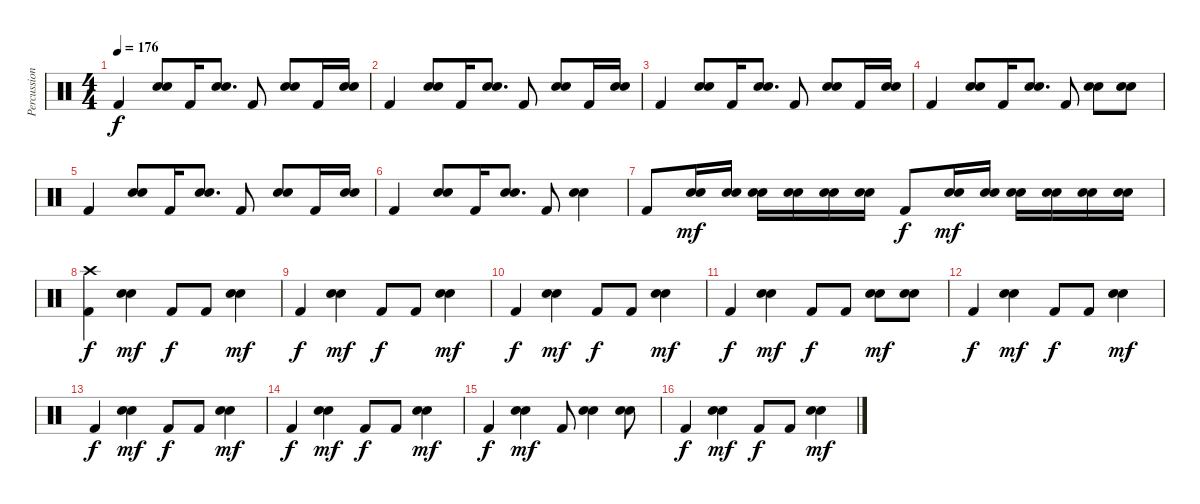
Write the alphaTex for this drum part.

\track ("Percussion" "Percussion") {instrument percussion}
\staff {score}
\articulation defaults
\ts (4 4)
\tempo 176
\clef neutral
\ks c "Kick (hit) 2".4{dy f}
("Electric Snare (hit)" "Snare (hit) 2").8 "Kick (hit) 2".16 ("Electric Snare (hit)" "Snare (hit) 2").8{d} "Kick (hit) 2".8 ("Electric Snare (hit)" "Snare (hit) 2").8 "Kick (hit) 2".16 ("Electric Snare (hit)" "Snare (hit) 2").16 |
"Kick (hit) 2".4 ("Electric Snare (hit)" "Snare (hit) 2").8 "Kick (hit) 2".16 ("Electric Snare (hit)" "Snare (hit) 2").8{d} "Kick (hit) 2".8 ("Electric Snare (hit)" "Snare (hit) 2").8 "Kick (hit) 2".16 ("Electric Snare (hit)" "Snare (hit) 2").16 |
"Kick (hit) 2".4 ("Electric Snare (hit)" "Snare (hit) 2").8 "Kick (hit) 2".16 ("Electric Snare (hit)" "Snare (hit) 2").8{d} "Kick (hit) 2".8 ("Electric Snare (hit)" "Snare (hit) 2").8 "Kick (hit) 2".16 ("Electric Snare (hit)" "Snare (hit) 2").16 |
"Kick (hit) 2".4 ("Electric Snare (hit)" "Snare (hit) 2").8 "Kick (hit) 2".16 ("Electric Snare (hit)" "Snare (hit) 2").8{d} "Kick (hit) 2".8 ("Electric Snare (hit)" "Snare (hit) 2").8 ("Electric Snare (hit)" "Snare (hit) 2").8 |
"Kick (hit) 2".4 ("Electric Snare (hit)" "Snare (hit) 2").8 "Kick (hit) 2".16 ("Electric Snare (hit)" "Snare (hit) 2").8{d} "Kick (hit) 2".8 ("Electric Snare (hit)" "Snare (hit) 2").8 "Kick (hit) 2".16 ("Electric Snare (hit)" "Snare (hit) 2").16 |
"Kick (hit) 2".4 ("Electric Snare (hit)" "Snare (hit) 2").8 "Kick (hit) 2".16 ("Electric Snare (hit)" "Snare (hit) 2").8{d} "Kick (hit) 2".8 ("Electric Snare (hit)" "Snare (hit) 2").4 |
"Kick (hit) 2".8 ("Electric Snare (hit)" "Snare (hit) 2").16{dy mf} ("Electric Snare (hit)" "Snare (hit) 2").16 ("Electric Snare (hit)" "Snare (hit) 2").16 ("Electric Snare (hit)" "Snare (hit) 2").16 ("Electric Snare (hit)" "Snare (hit) 2").16 ("Electric Snare (hit)" "Snare (hit) 2").16 "Kick (hit) 2".8{dy f} ("Electric Snare (hit)" "Snare (hit) 2").16{dy mf} ("Electric Snare (hit)" "Snare (hit) 2").16 ("Electric Snare (hit)" "Snare (hit) 2").16 ("Electric Snare (hit)" "Snare (hit) 2").16 ("Electric Snare (hit)" "Snare (hit) 2").16 ("Electric Snare (hit)" "Snare (hit) 2").16 |
("Kick (hit) 2" "Crash high (hit)").4{dy f} ("Electric Snare (hit)" "Snare (hit) 2").4{dy mf} "Kick (hit) 2".8{dy f} "Kick (hit) 2".8 ("Electric Snare (hit)" "Snare (hit) 2").4{dy mf} |
"Kick (hit) 2".4{dy f} ("Electric Snare (hit)" "Snare (hit) 2").4{dy mf} "Kick (hit) 2".8{dy f} "Kick (hit) 2".8 ("Electric Snare (hit)" "Snare (hit) 2").4{dy mf} |
"Kick (hit) 2".4{dy f} ("Electric Snare (hit)" "Snare (hit) 2").4{dy mf} "Kick (hit) 2".8{dy f} "Kick (hit) 2".8 ("Electric Snare (hit)" "Snare (hit) 2").4{dy mf} |
"Kick (hit) 2".4{dy f} ("Electric Snare (hit)" "Snare (hit) 2").4{dy mf} "Kick (hit) 2".8{dy f} "Kick (hit) 2".8 ("Electric Snare (hit)" "Snare (hit) 2").8{dy mf} ("Electric Snare (hit)" "Snare (hit) 2").8 |
"Kick (hit) 2".4{dy f} ("Electric Snare (hit)" "Snare (hit) 2").4{dy mf} "Kick (hit) 2".8{dy f} "Kick (hit) 2".8 ("Electric Snare (hit)" "Snare (hit) 2").4{dy mf} |
"Kick (hit) 2".4{dy f} ("Electric Snare (hit)" "Snare (hit) 2").4{dy mf} "Kick (hit) 2".8{dy f} "Kick (hit) 2".8 ("Electric Snare (hit)" "Snare (hit) 2").4{dy mf} |
"Kick (hit) 2".4{dy f} ("Electric Snare (hit)" "Snare (hit) 2").4{dy mf} "Kick (hit) 2".8{dy f} "Kick (hit) 2".8 ("Electric Snare (hit)" "Snare (hit) 2").4{dy mf} |
"Kick (hit) 2".4{dy f} ("Electric Snare (hit)" "Snare (hit) 2").4{dy mf} "Kick (hit) 2".8 ("Electric Snare (hit)" "Snare (hit) 2").4 ("Electric Snare (hit)" "Snare (hit) 2").8 |
"Kick (hit) 2".4{dy f} ("Electric Snare (hit)" "Snare (hit) 2").4{dy mf} "Kick (hit) 2".8{dy f} "Kick (hit) 2".8 ("Electric Snare (hit)" "Snare (hit) 2").4{dy mf}
